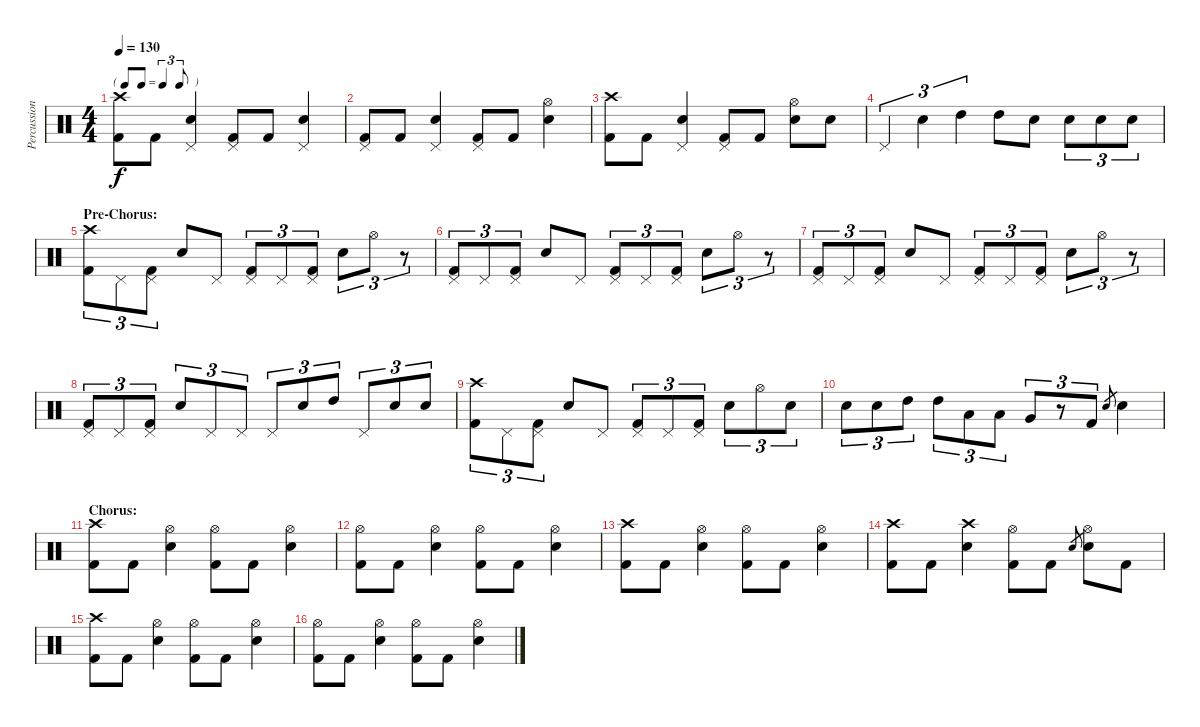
\track ("Percussion" "Percussion") {instrument percussion}
\staff {score}
\articulation defaults
\ts (4 4)
\tf triplet8th
\tempo 130
\clef neutral
\ks c
("Crash high (hit)" "Kick (hit) 2").8{dy f} "Kick (hit) 2".8 ("Pedal Hi-Hat (hit)" "Electric Snare (hit)").4 ("Pedal Hi-Hat (hit)" "Kick (hit) 2").8 "Kick (hit) 2".8 ("Pedal Hi-Hat (hit)" "Electric Snare (hit)").4 |
("Pedal Hi-Hat (hit)" "Kick (hit) 2").8 "Kick (hit) 2".8 ("Pedal Hi-Hat (hit)" "Electric Snare (hit)").4 ("Pedal Hi-Hat (hit)" "Kick (hit) 2").8 "Kick (hit) 2".8 ("Hi-Hat (open)" "Electric Snare (hit)").4 |
("Crash high (hit)" "Kick (hit) 2").8 "Kick (hit) 2".8 ("Pedal Hi-Hat (hit)" "Electric Snare (hit)").4 ("Pedal Hi-Hat (hit)" "Kick (hit) 2").8 "Kick (hit) 2".8 ("Hi-Hat (open)" "Electric Snare (hit)").8 "Electric Snare (hit)".8 |
"Pedal Hi-Hat (hit)".4{tu (3 2)} "Electric Snare (hit)".4{tu (3 2)} "High Tom (hit)".4{tu (3 2)} "High Tom (hit)".8 "Electric Snare (hit)".8 "Electric Snare (hit)".8{tu (3 2)} "Electric Snare (hit)".8{tu (3 2)} "Electric Snare (hit)".8{tu (3 2)} |
\section ("" "Pre-Chorus:")
("Crash high (hit)" "Kick (hit) 2").8{tu (3 2)} "Pedal Hi-Hat (hit)".8{tu (3 2)} ("Pedal Hi-Hat (hit)" "Kick (hit) 2").8{tu (3 2)} "Electric Snare (hit)".8 "Pedal Hi-Hat (hit)".8 ("Pedal Hi-Hat (hit)" "Kick (hit) 2").8{tu (3 2)} "Pedal Hi-Hat (hit)".8{tu (3 2)} ("Pedal Hi-Hat (hit)" "Kick (hit) 2").8{tu (3 2)} "Electric Snare (hit)".8{tu (3 2)} "Hi-Hat (open)".8{tu (3 2)} r.8{tu (3 2)} |
("Pedal Hi-Hat (hit)" "Kick (hit) 2").8{tu (3 2)} "Pedal Hi-Hat (hit)".8{tu (3 2)} ("Pedal Hi-Hat (hit)" "Kick (hit) 2").8{tu (3 2)} "Electric Snare (hit)".8 "Pedal Hi-Hat (hit)".8 ("Pedal Hi-Hat (hit)" "Kick (hit) 2").8{tu (3 2)} "Pedal Hi-Hat (hit)".8{tu (3 2)} ("Pedal Hi-Hat (hit)" "Kick (hit) 2").8{tu (3 2)} "Electric Snare (hit)".8{tu (3 2)} "Hi-Hat (open)".8{tu (3 2)} r.8{tu (3 2)} |
("Pedal Hi-Hat (hit)" "Kick (hit) 2").8{tu (3 2)} "Pedal Hi-Hat (hit)".8{tu (3 2)} ("Pedal Hi-Hat (hit)" "Kick (hit) 2").8{tu (3 2)} "Electric Snare (hit)".8 "Pedal Hi-Hat (hit)".8 ("Pedal Hi-Hat (hit)" "Kick (hit) 2").8{tu (3 2)} "Pedal Hi-Hat (hit)".8{tu (3 2)} ("Pedal Hi-Hat (hit)" "Kick (hit) 2").8{tu (3 2)} "Electric Snare (hit)".8{tu (3 2)} "Hi-Hat (open)".8{tu (3 2)} r.8{tu (3 2)} |
("Pedal Hi-Hat (hit)" "Kick (hit) 2").8{tu (3 2)} "Pedal Hi-Hat (hit)".8{tu (3 2)} ("Pedal Hi-Hat (hit)" "Kick (hit) 2").8{tu (3 2)} "Electric Snare (hit)".8{tu (3 2)} "Pedal Hi-Hat (hit)".8{tu (3 2)} "Pedal Hi-Hat (hit)".8{tu (3 2)} "Pedal Hi-Hat (hit)".8{tu (3 2)} "Electric Snare (hit)".8{tu (3 2)} "High Tom (hit)".8{tu (3 2)} "Pedal Hi-Hat (hit)".8{tu (3 2)} "Electric Snare (hit)".8{tu (3 2)} "Electric Snare (hit)".8{tu (3 2)} |
("Crash high (hit)" "Kick (hit) 2").8{tu (3 2)} "Pedal Hi-Hat (hit)".8{tu (3 2)} ("Pedal Hi-Hat (hit)" "Kick (hit) 2").8{tu (3 2)} "Electric Snare (hit)".8 "Pedal Hi-Hat (hit)".8 ("Pedal Hi-Hat (hit)" "Kick (hit) 2").8{tu (3 2)} "Pedal Hi-Hat (hit)".8{tu (3 2)} ("Pedal Hi-Hat (hit)" "Kick (hit) 2").8{tu (3 2)} "Electric Snare (hit)".8{tu (3 2)} "Hi-Hat (open)".8{tu (3 2)} "Electric Snare (hit)".8{tu (3 2)} |
"Electric Snare (hit)".8{tu (3 2)} "Electric Snare (hit)".8{tu (3 2)} "High Tom (hit)".8{tu (3 2)} "High Tom (hit)".8{tu (3 2)} "Low Tom (hit)".8{tu (3 2)} "Low Tom (hit)".8{tu (3 2)} "Very Low Tom (hit)".8{tu (3 2)} r.8{tu (3 2)} "Kick (hit) 2".8{tu (3 2)} "Electric Snare (hit)".8{gr} "Electric Snare (hit)".4 |
\section ("" "Chorus:")
("Crash high (hit)" "Kick (hit) 2").8 "Kick (hit) 2".8 ("Hi-Hat (open)" "Electric Snare (hit)").4 ("Hi-Hat (open)" "Kick (hit) 2").8 "Kick (hit) 2".8 ("Hi-Hat (open)" "Electric Snare (hit)").4 |
("Hi-Hat (open)" "Kick (hit) 2").8 "Kick (hit) 2".8 ("Hi-Hat (open)" "Electric Snare (hit)").4 ("Hi-Hat (open)" "Kick (hit) 2").8 "Kick (hit) 2".8 ("Hi-Hat (open)" "Electric Snare (hit)").4 |
("Crash high (hit)" "Kick (hit) 2").8 "Kick (hit) 2".8 ("Hi-Hat (open)" "Electric Snare (hit)").4 ("Hi-Hat (open)" "Kick (hit) 2").8 "Kick (hit) 2".8 ("Hi-Hat (open)" "Electric Snare (hit)").4 |
("Crash high (hit)" "Kick (hit) 2").8 "Kick (hit) 2".8 ("Crash high (hit)" "Electric Snare (hit)").4 ("Hi-Hat (open)" "Kick (hit) 2").8 "Kick (hit) 2".8 "Electric Snare (hit)".8{gr} ("Hi-Hat (open)" "Electric Snare (hit)").8 "Kick (hit) 2".8 |
("Crash high (hit)" "Kick (hit) 2").8 "Kick (hit) 2".8 ("Hi-Hat (open)" "Electric Snare (hit)").4 ("Hi-Hat (open)" "Kick (hit) 2").8 "Kick (hit) 2".8 ("Hi-Hat (open)" "Electric Snare (hit)").4 |
("Hi-Hat (open)" "Kick (hit) 2").8 "Kick (hit) 2".8 ("Hi-Hat (open)" "Electric Snare (hit)").4 ("Hi-Hat (open)" "Kick (hit) 2").8 "Kick (hit) 2".8 ("Hi-Hat (open)" "Electric Snare (hit)").4
